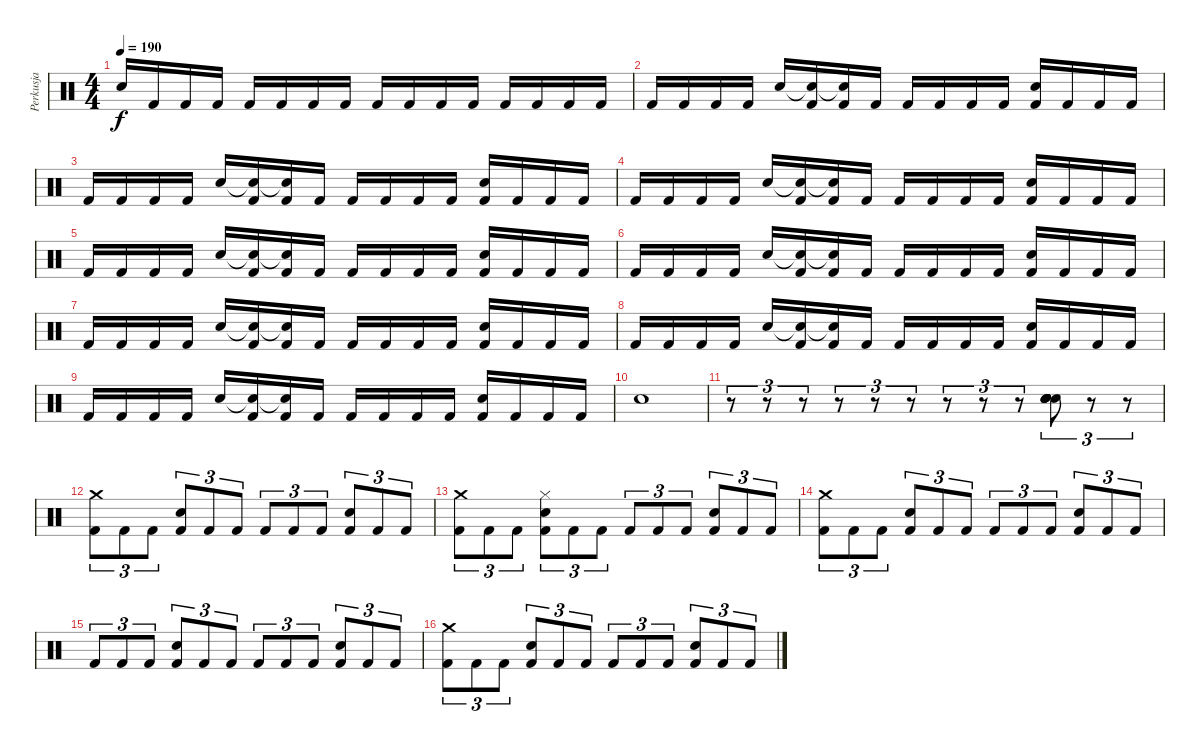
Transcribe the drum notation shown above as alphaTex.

\track ("Perkusja" "Perkusja") {instrument percussion}
\staff {score}
\articulation defaults
\ts (4 4)
\tempo 190
\clef neutral
\ks c "Electric Snare (hit)".16{dy f} "Kick (hit) 2".16 "Kick (hit) 2".16 "Kick (hit) 2".16 "Kick (hit) 2".16 "Kick (hit) 2".16 "Kick (hit) 2".16 "Kick (hit) 2".16 "Kick (hit) 2".16 "Kick (hit) 2".16 "Kick (hit) 2".16 "Kick (hit) 2".16 "Kick (hit) 2".16 "Kick (hit) 2".16 "Kick (hit) 2".16 "Kick (hit) 2".16
|
"Kick (hit) 2".16{balance 8} "Kick (hit) 2".16 "Kick (hit) 2".16 "Kick (hit) 2".16 "Electric Snare (hit)".16 ("Snare (hit)"{t} "Kick (hit) 2").16 ("Snare (hit)"{t} "Kick (hit) 2").16 "Kick (hit) 2".16 "Kick (hit) 2".16 "Kick (hit) 2".16 "Kick (hit) 2".16 "Kick (hit) 2".16 ("Electric Snare (hit)" "Kick (hit) 2").16 "Kick (hit) 2".16 "Kick (hit) 2".16 "Kick (hit) 2".16 |
"Kick (hit) 2".16 "Kick (hit) 2".16 "Kick (hit) 2".16 "Kick (hit) 2".16 "Electric Snare (hit)".16 ("Snare (hit)"{t} "Kick (hit) 2").16 ("Snare (hit)"{t} "Kick (hit) 2").16 "Kick (hit) 2".16 "Kick (hit) 2".16 "Kick (hit) 2".16 "Kick (hit) 2".16 "Kick (hit) 2".16 ("Electric Snare (hit)" "Kick (hit) 2").16 "Kick (hit) 2".16 "Kick (hit) 2".16 "Kick (hit) 2".16 |
"Kick (hit) 2".16 "Kick (hit) 2".16 "Kick (hit) 2".16 "Kick (hit) 2".16 "Electric Snare (hit)".16 ("Snare (hit)"{t} "Kick (hit) 2").16 ("Snare (hit)"{t} "Kick (hit) 2").16 "Kick (hit) 2".16 "Kick (hit) 2".16 "Kick (hit) 2".16 "Kick (hit) 2".16 "Kick (hit) 2".16 ("Electric Snare (hit)" "Kick (hit) 2").16 "Kick (hit) 2".16 "Kick (hit) 2".16 "Kick (hit) 2".16 |
"Kick (hit) 2".16 "Kick (hit) 2".16 "Kick (hit) 2".16 "Kick (hit) 2".16 "Electric Snare (hit)".16 ("Snare (hit)"{t} "Kick (hit) 2").16 ("Snare (hit)"{t} "Kick (hit) 2").16 "Kick (hit) 2".16 "Kick (hit) 2".16 "Kick (hit) 2".16 "Kick (hit) 2".16 "Kick (hit) 2".16 ("Electric Snare (hit)" "Kick (hit) 2").16 "Kick (hit) 2".16 "Kick (hit) 2".16 "Kick (hit) 2".16 |
"Kick (hit) 2".16 "Kick (hit) 2".16 "Kick (hit) 2".16 "Kick (hit) 2".16 "Electric Snare (hit)".16 ("Snare (hit)"{t} "Kick (hit) 2").16 ("Snare (hit)"{t} "Kick (hit) 2").16 "Kick (hit) 2".16 "Kick (hit) 2".16 "Kick (hit) 2".16 "Kick (hit) 2".16 "Kick (hit) 2".16 ("Electric Snare (hit)" "Kick (hit) 2").16 "Kick (hit) 2".16 "Kick (hit) 2".16 "Kick (hit) 2".16 |
"Kick (hit) 2".16 "Kick (hit) 2".16 "Kick (hit) 2".16 "Kick (hit) 2".16 "Electric Snare (hit)".16 ("Snare (hit)"{t} "Kick (hit) 2").16 ("Snare (hit)"{t} "Kick (hit) 2").16 "Kick (hit) 2".16 "Kick (hit) 2".16 "Kick (hit) 2".16 "Kick (hit) 2".16 "Kick (hit) 2".16 ("Electric Snare (hit)" "Kick (hit) 2").16 "Kick (hit) 2".16 "Kick (hit) 2".16 "Kick (hit) 2".16 |
"Kick (hit) 2".16 "Kick (hit) 2".16 "Kick (hit) 2".16 "Kick (hit) 2".16 "Electric Snare (hit)".16 ("Snare (hit)"{t} "Kick (hit) 2").16 ("Snare (hit)"{t} "Kick (hit) 2").16 "Kick (hit) 2".16 "Kick (hit) 2".16 "Kick (hit) 2".16 "Kick (hit) 2".16 "Kick (hit) 2".16 ("Electric Snare (hit)" "Kick (hit) 2").16 "Kick (hit) 2".16 "Kick (hit) 2".16 "Kick (hit) 2".16 |
"Kick (hit) 2".16 "Kick (hit) 2".16 "Kick (hit) 2".16 "Kick (hit) 2".16 "Electric Snare (hit)".16 ("Snare (hit)"{t} "Kick (hit) 2").16 ("Snare (hit)"{t} "Kick (hit) 2").16 "Kick (hit) 2".16 "Kick (hit) 2".16 "Kick (hit) 2".16 "Kick (hit) 2".16 "Kick (hit) 2".16 ("Electric Snare (hit)" "Kick (hit) 2").16 "Kick (hit) 2".16 "Kick (hit) 2".16 "Kick (hit) 2".16 |
"Electric Snare (hit)".1 |
r.8{tu (3 2)} r.8{tu (3 2)} r.8{tu (3 2)} r.8{tu (3 2)} r.8{tu (3 2)} r.8{tu (3 2)} r.8{tu (3 2)} r.8{tu (3 2)} r.8{tu (3 2)} ("Electric Snare (hit)" "Electric Snare (hit)" "Electric Snare (hit)" "Snare (hit) 2" "Snare (hit) 2").8{tu (3 2)} r.8{tu (3 2)} r.8{tu (3 2)} |
("Crash medium (hit)" "Kick (hit) 2").8{tu (3 2)} "Kick (hit) 2".8{tu (3 2)} "Kick (hit) 2".8{tu (3 2)} ("Electric Snare (hit)" "Kick (hit) 2").8{tu (3 2)} "Kick (hit) 2".8{tu (3 2)} "Kick (hit) 2".8{tu (3 2)} "Kick (hit) 2".8{tu (3 2)} "Kick (hit) 2".8{tu (3 2)} "Kick (hit) 2".8{tu (3 2)} ("Electric Snare (hit)" "Kick (hit) 2").8{tu (3 2)} "Kick (hit) 2".8{tu (3 2)} "Kick (hit) 2".8{tu (3 2)} |
("Crash medium (hit)" "Kick (hit) 2").8{tu (3 2)} "Kick (hit) 2".8{tu (3 2)} "Kick (hit) 2".8{tu (3 2)} ("Hi-Hat (closed)" "Electric Snare (hit)" "Kick (hit) 2").8{tu (3 2)} "Kick (hit) 2".8{tu (3 2)} "Kick (hit) 2".8{tu (3 2)} "Kick (hit) 2".8{tu (3 2)} "Kick (hit) 2".8{tu (3 2)} "Kick (hit) 2".8{tu (3 2)} ("Electric Snare (hit)" "Kick (hit) 2").8{tu (3 2)} "Kick (hit) 2".8{tu (3 2)} "Kick (hit) 2".8{tu (3 2)} |
("Crash medium (hit)" "Kick (hit) 2").8{tu (3 2)} "Kick (hit) 2".8{tu (3 2)} "Kick (hit) 2".8{tu (3 2)} ("Electric Snare (hit)" "Kick (hit) 2").8{tu (3 2)} "Kick (hit) 2".8{tu (3 2)} "Kick (hit) 2".8{tu (3 2)} "Kick (hit) 2".8{tu (3 2)} "Kick (hit) 2".8{tu (3 2)} "Kick (hit) 2".8{tu (3 2)} ("Electric Snare (hit)" "Kick (hit) 2").8{tu (3 2)} "Kick (hit) 2".8{tu (3 2)} "Kick (hit) 2".8{tu (3 2)} |
"Kick (hit) 2".8{tu (3 2)} "Kick (hit) 2".8{tu (3 2)} "Kick (hit) 2".8{tu (3 2)} ("Electric Snare (hit)" "Kick (hit) 2").8{tu (3 2)} "Kick (hit) 2".8{tu (3 2)} "Kick (hit) 2".8{tu (3 2)} "Kick (hit) 2".8{tu (3 2)} "Kick (hit) 2".8{tu (3 2)} "Kick (hit) 2".8{tu (3 2)} ("Electric Snare (hit)" "Kick (hit) 2").8{tu (3 2)} "Kick (hit) 2".8{tu (3 2)} "Kick (hit) 2".8{tu (3 2)} |
("Crash medium (hit)" "Kick (hit) 2").8{tu (3 2)} "Kick (hit) 2".8{tu (3 2)} "Kick (hit) 2".8{tu (3 2)} ("Electric Snare (hit)" "Kick (hit) 2").8{tu (3 2)} "Kick (hit) 2".8{tu (3 2)} "Kick (hit) 2".8{tu (3 2)} "Kick (hit) 2".8{tu (3 2)} "Kick (hit) 2".8{tu (3 2)} "Kick (hit) 2".8{tu (3 2)} ("Electric Snare (hit)" "Kick (hit) 2").8{tu (3 2)} "Kick (hit) 2".8{tu (3 2)} "Kick (hit) 2".8{tu (3 2)}
